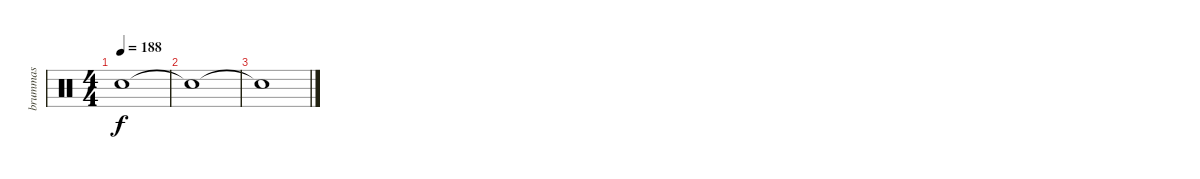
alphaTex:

\track ("brummas" "brummas") {instrument percussion}
\staff {score}
\articulation defaults
\ts (4 4)
\tempo 188
\clef neutral
\ks c "Snare (hit)"{t}.1{dy f}
|
"Snare (hit)"{t}.1 |
"Snare (hit)"{t}.1
